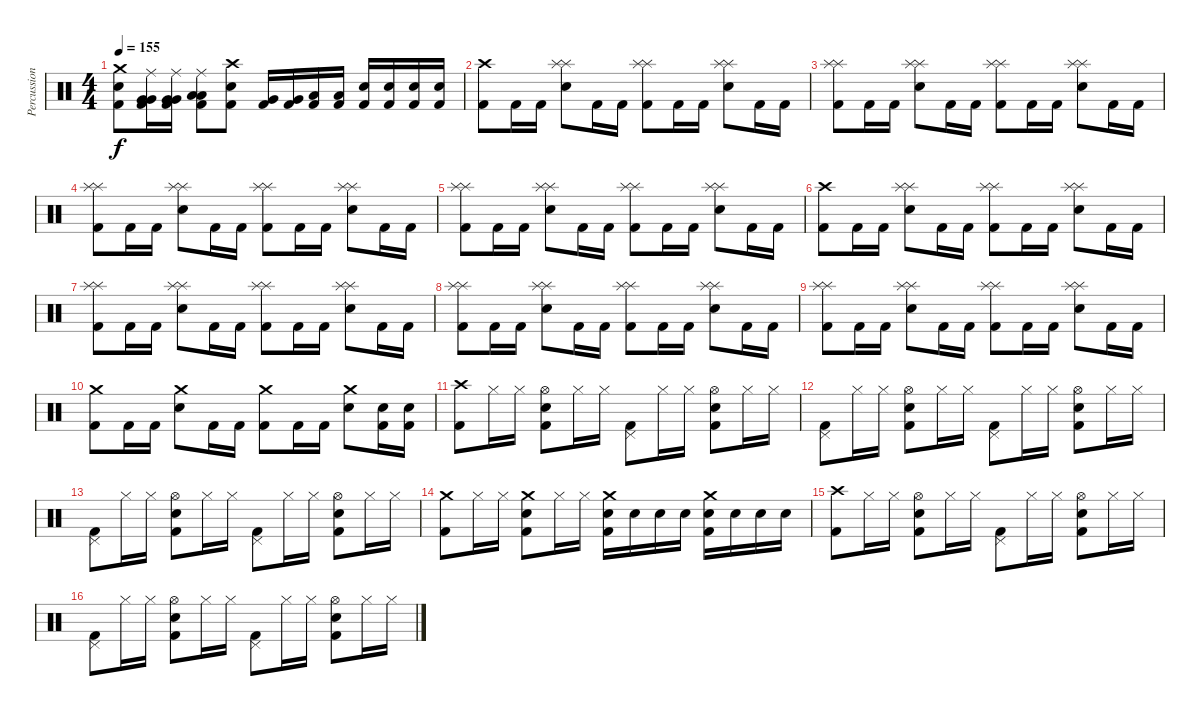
\track ("Percussion" "Percussion") {instrument percussion}
\staff {score}
\articulation defaults
\ts (4 4)
\tempo 155
\clef neutral
\ks c
("Crash medium (hit)" "Electric Snare (hit)" "Kick (hit) 2").8{dy f} ("Ride (middle)" "Very Low Tom (hit)" "Very Low Tom (hit)" "Kick (hit) 2").16 ("Ride (middle)" "Very Low Tom (hit)" "Very Low Tom (hit)" "Kick (hit) 2").16 ("Ride (middle)" "Low Floor Tom (hit)" "Low Floor Tom (hit)" "Kick (hit) 2").8 ("Crash high (hit)" "Electric Snare (hit)" "Kick (hit) 2").8 ("Very Low Tom (hit)" "Kick (hit) 2").16 ("Very Low Tom (hit)" "Kick (hit) 2").16 ("Low Floor Tom (hit)" "Kick (hit) 2").16 ("Low Floor Tom (hit)" "Kick (hit) 2").16 ("Electric Snare (hit)" "Kick (hit) 2").16 ("Electric Snare (hit)" "Kick (hit) 2").16 ("Electric Snare (hit)" "Kick (hit) 2").16 ("Electric Snare (hit)" "Kick (hit) 2").16 |
("Crash high (hit)" "Kick (hit) 2").8 "Kick (hit) 2".16 "Kick (hit) 2".16 ("Splash (hit)" "Splash (hit)" "Electric Snare (hit)").8 "Kick (hit) 2".16 "Kick (hit) 2".16 ("Splash (hit)" "Splash (hit)" "Kick (hit) 2").8 "Kick (hit) 2".16 "Kick (hit) 2".16 ("Splash (hit)" "Splash (hit)" "Electric Snare (hit)").8 "Kick (hit) 2".16 "Kick (hit) 2".16 |
("Splash (hit)" "Splash (hit)" "Kick (hit) 2").8 "Kick (hit) 2".16 "Kick (hit) 2".16 ("Splash (hit)" "Splash (hit)" "Electric Snare (hit)").8 "Kick (hit) 2".16 "Kick (hit) 2".16 ("Splash (hit)" "Splash (hit)" "Kick (hit) 2").8 "Kick (hit) 2".16 "Kick (hit) 2".16 ("Splash (hit)" "Splash (hit)" "Electric Snare (hit)").8 "Kick (hit) 2".16 "Kick (hit) 2".16 |
("Splash (hit)" "Splash (hit)" "Kick (hit) 2").8 "Kick (hit) 2".16 "Kick (hit) 2".16 ("Splash (hit)" "Splash (hit)" "Electric Snare (hit)").8 "Kick (hit) 2".16 "Kick (hit) 2".16 ("Splash (hit)" "Splash (hit)" "Kick (hit) 2").8 "Kick (hit) 2".16 "Kick (hit) 2".16 ("Splash (hit)" "Splash (hit)" "Electric Snare (hit)").8 "Kick (hit) 2".16 "Kick (hit) 2".16 |
("Splash (hit)" "Splash (hit)" "Kick (hit) 2").8 "Kick (hit) 2".16 "Kick (hit) 2".16 ("Splash (hit)" "Splash (hit)" "Electric Snare (hit)").8 "Kick (hit) 2".16 "Kick (hit) 2".16 ("Splash (hit)" "Splash (hit)" "Kick (hit) 2").8 "Kick (hit) 2".16 "Kick (hit) 2".16 ("Splash (hit)" "Splash (hit)" "Electric Snare (hit)").8 "Kick (hit) 2".16 "Kick (hit) 2".16 |
("Crash high (hit)" "Kick (hit) 2").8 "Kick (hit) 2".16 "Kick (hit) 2".16 ("Splash (hit)" "Splash (hit)" "Electric Snare (hit)").8 "Kick (hit) 2".16 "Kick (hit) 2".16 ("Splash (hit)" "Splash (hit)" "Kick (hit) 2").8 "Kick (hit) 2".16 "Kick (hit) 2".16 ("Splash (hit)" "Splash (hit)" "Electric Snare (hit)").8 "Kick (hit) 2".16 "Kick (hit) 2".16 |
("Splash (hit)" "Splash (hit)" "Kick (hit) 2").8 "Kick (hit) 2".16 "Kick (hit) 2".16 ("Splash (hit)" "Splash (hit)" "Electric Snare (hit)").8 "Kick (hit) 2".16 "Kick (hit) 2".16 ("Splash (hit)" "Splash (hit)" "Kick (hit) 2").8 "Kick (hit) 2".16 "Kick (hit) 2".16 ("Splash (hit)" "Splash (hit)" "Electric Snare (hit)").8 "Kick (hit) 2".16 "Kick (hit) 2".16 |
("Splash (hit)" "Splash (hit)" "Kick (hit) 2").8 "Kick (hit) 2".16 "Kick (hit) 2".16 ("Splash (hit)" "Splash (hit)" "Electric Snare (hit)").8 "Kick (hit) 2".16 "Kick (hit) 2".16 ("Splash (hit)" "Splash (hit)" "Kick (hit) 2").8 "Kick (hit) 2".16 "Kick (hit) 2".16 ("Splash (hit)" "Splash (hit)" "Electric Snare (hit)").8 "Kick (hit) 2".16 "Kick (hit) 2".16 |
("Splash (hit)" "Splash (hit)" "Kick (hit) 2").8 "Kick (hit) 2".16 "Kick (hit) 2".16 ("Splash (hit)" "Splash (hit)" "Electric Snare (hit)").8 "Kick (hit) 2".16 "Kick (hit) 2".16 ("Splash (hit)" "Splash (hit)" "Kick (hit) 2").8 "Kick (hit) 2".16 "Kick (hit) 2".16 ("Splash (hit)" "Splash (hit)" "Electric Snare (hit)").8 "Kick (hit) 2".16 "Kick (hit) 2".16 |
("Crash medium (hit)" "Kick (hit) 2").8 "Kick (hit) 2".16 "Kick (hit) 2".16 ("Crash medium (hit)" "Electric Snare (hit)").8 "Kick (hit) 2".16 "Kick (hit) 2".16 ("Crash medium (hit)" "Kick (hit) 2").8 "Kick (hit) 2".16 "Kick (hit) 2".16 ("Crash medium (hit)" "Electric Snare (hit)").8 ("Electric Snare (hit)" "Kick (hit) 2").16 ("Electric Snare (hit)" "Kick (hit) 2").16 |
("Crash high (hit)" "Kick (hit) 2").8 "Hi-Hat (closed)".16 "Hi-Hat (closed)".16 ("Hi-Hat (open)" "Electric Snare (hit)" "Kick (hit) 2").8 "Hi-Hat (closed)".16 "Hi-Hat (closed)".16 ("Pedal Hi-Hat (hit)" "Kick (hit) 2").8 "Hi-Hat (closed)".16 "Hi-Hat (closed)".16 ("Hi-Hat (open)" "Electric Snare (hit)" "Kick (hit) 2").8 "Hi-Hat (closed)".16 "Hi-Hat (closed)".16 |
("Pedal Hi-Hat (hit)" "Kick (hit) 2").8 "Hi-Hat (closed)".16 "Hi-Hat (closed)".16 ("Hi-Hat (open)" "Electric Snare (hit)" "Kick (hit) 2").8 "Hi-Hat (closed)".16 "Hi-Hat (closed)".16 ("Pedal Hi-Hat (hit)" "Kick (hit) 2").8 "Hi-Hat (closed)".16 "Hi-Hat (closed)".16 ("Hi-Hat (open)" "Electric Snare (hit)" "Kick (hit) 2").8 "Hi-Hat (closed)".16 "Hi-Hat (closed)".16 |
("Pedal Hi-Hat (hit)" "Kick (hit) 2").8 "Hi-Hat (closed)".16 "Hi-Hat (closed)".16 ("Hi-Hat (open)" "Electric Snare (hit)" "Kick (hit) 2").8 "Hi-Hat (closed)".16 "Hi-Hat (closed)".16 ("Pedal Hi-Hat (hit)" "Kick (hit) 2").8 "Hi-Hat (closed)".16 "Hi-Hat (closed)".16 ("Hi-Hat (open)" "Electric Snare (hit)" "Kick (hit) 2").8 "Hi-Hat (closed)".16 "Hi-Hat (closed)".16 |
("Crash medium (hit)" "Kick (hit) 2").8 "Hi-Hat (closed)".16 "Hi-Hat (closed)".16 ("Crash medium (hit)" "Electric Snare (hit)" "Kick (hit) 2").8 "Hi-Hat (closed)".16 "Hi-Hat (closed)".16 ("Crash medium (hit)" "Electric Snare (hit)" "Kick (hit) 2").16 "Electric Snare (hit)".16 "Electric Snare (hit)".16 "Electric Snare (hit)".16 ("Crash medium (hit)" "Electric Snare (hit)" "Kick (hit) 2").16 "Electric Snare (hit)".16 "Electric Snare (hit)".16 "Electric Snare (hit)".16 |
("Crash high (hit)" "Kick (hit) 2").8 "Hi-Hat (closed)".16 "Hi-Hat (closed)".16 ("Hi-Hat (open)" "Electric Snare (hit)" "Kick (hit) 2").8 "Hi-Hat (closed)".16 "Hi-Hat (closed)".16 ("Pedal Hi-Hat (hit)" "Kick (hit) 2").8 "Hi-Hat (closed)".16 "Hi-Hat (closed)".16 ("Hi-Hat (open)" "Electric Snare (hit)" "Kick (hit) 2").8 "Hi-Hat (closed)".16 "Hi-Hat (closed)".16 |
("Pedal Hi-Hat (hit)" "Kick (hit) 2").8 "Hi-Hat (closed)".16 "Hi-Hat (closed)".16 ("Hi-Hat (open)" "Electric Snare (hit)" "Kick (hit) 2").8 "Hi-Hat (closed)".16 "Hi-Hat (closed)".16 ("Pedal Hi-Hat (hit)" "Kick (hit) 2").8 "Hi-Hat (closed)".16 "Hi-Hat (closed)".16 ("Hi-Hat (open)" "Electric Snare (hit)" "Kick (hit) 2").8 "Hi-Hat (closed)".16 "Hi-Hat (closed)".16
